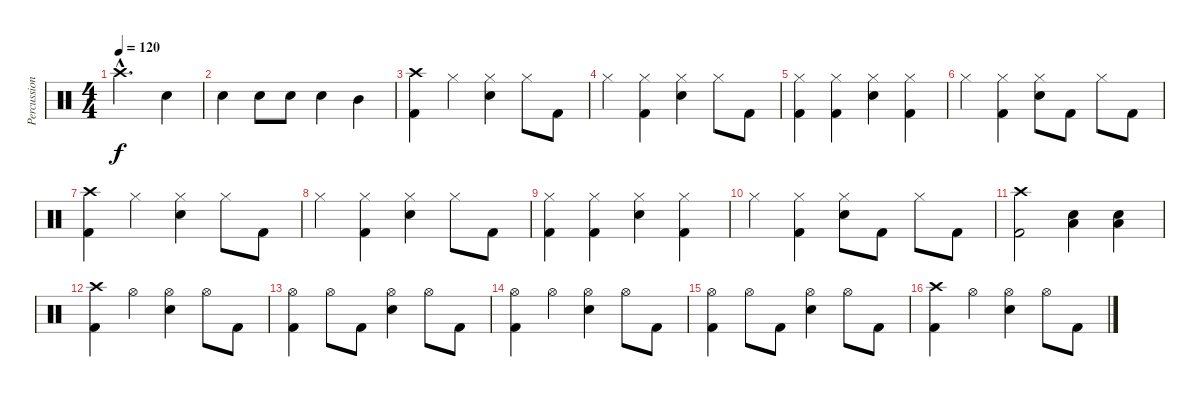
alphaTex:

\track ("Percussion" "Percussion") {instrument percussion}
\staff {score}
\articulation defaults
\ts (4 4)
\tempo 120
\clef neutral
\ks c "Crash high (hit)"{hac}.2{d dy f} "Snare (hit) 2".4
|
"Snare (hit) 2".4 "Snare (hit) 2".8 "Snare (hit) 2".8 "Snare (hit) 2".4 "Mid Tom (hit)".4 |
("Crash high (hit)" "Kick (hit) 2").4 "Hi-Hat (closed)".4 ("Hi-Hat (closed)" "Snare (hit) 2").4 "Hi-Hat (closed)".8 "Kick (hit) 2".8 |
"Hi-Hat (closed)".4 ("Hi-Hat (closed)" "Kick (hit) 2").4 ("Hi-Hat (closed)" "Snare (hit) 2").4 "Hi-Hat (closed)".8 "Kick (hit) 2".8 |
("Hi-Hat (closed)" "Kick (hit) 2").4 ("Hi-Hat (closed)" "Kick (hit) 2").4 ("Hi-Hat (closed)" "Snare (hit) 2").4 ("Hi-Hat (closed)" "Kick (hit) 2").4 |
"Hi-Hat (closed)".4 ("Hi-Hat (closed)" "Kick (hit) 2").4 ("Hi-Hat (closed)" "Snare (hit) 2").8 "Kick (hit) 2".8 "Hi-Hat (closed)".8 "Kick (hit) 2".8 |
("Crash high (hit)" "Kick (hit) 2").4 "Hi-Hat (closed)".4 ("Hi-Hat (closed)" "Snare (hit) 2").4 "Hi-Hat (closed)".8 "Kick (hit) 2".8 |
"Hi-Hat (closed)".4 ("Hi-Hat (closed)" "Kick (hit) 2").4 ("Hi-Hat (closed)" "Snare (hit) 2").4 "Hi-Hat (closed)".8 "Kick (hit) 2".8 |
("Hi-Hat (closed)" "Kick (hit) 2").4 ("Hi-Hat (closed)" "Kick (hit) 2").4 ("Hi-Hat (closed)" "Snare (hit) 2").4 ("Hi-Hat (closed)" "Kick (hit) 2").4 |
"Hi-Hat (closed)".4 ("Hi-Hat (closed)" "Kick (hit) 2").4 ("Hi-Hat (closed)" "Snare (hit) 2").8 "Kick (hit) 2".8 "Hi-Hat (closed)".8 "Kick (hit) 2".8 |
("Crash high (hit)" "Kick (hit) 2").2 ("Low Tom (hit)" "Snare (hit) 2").4 ("Low Tom (hit)" "Snare (hit) 2").4 |
("Crash high (hit)" "Kick (hit) 2").4 "Hi-Hat (open)".4 ("Hi-Hat (open)" "Snare (hit) 2").4 "Hi-Hat (open)".8 "Kick (hit) 2".8 |
("Hi-Hat (open)" "Kick (hit) 2").4 "Hi-Hat (open)".8 "Kick (hit) 2".8 ("Hi-Hat (open)" "Snare (hit) 2").4 "Hi-Hat (open)".8 "Kick (hit) 2".8 |
("Hi-Hat (open)" "Kick (hit) 2").4 "Hi-Hat (open)".4 ("Hi-Hat (open)" "Snare (hit) 2").4 "Hi-Hat (open)".8 "Kick (hit) 2".8 |
("Hi-Hat (open)" "Kick (hit) 2").4 "Hi-Hat (open)".8 "Kick (hit) 2".8 ("Hi-Hat (open)" "Snare (hit) 2").4 "Hi-Hat (open)".8 "Kick (hit) 2".8 |
("Crash high (hit)" "Kick (hit) 2").4 "Hi-Hat (open)".4 ("Hi-Hat (open)" "Snare (hit) 2").4 "Hi-Hat (open)".8 "Kick (hit) 2".8
